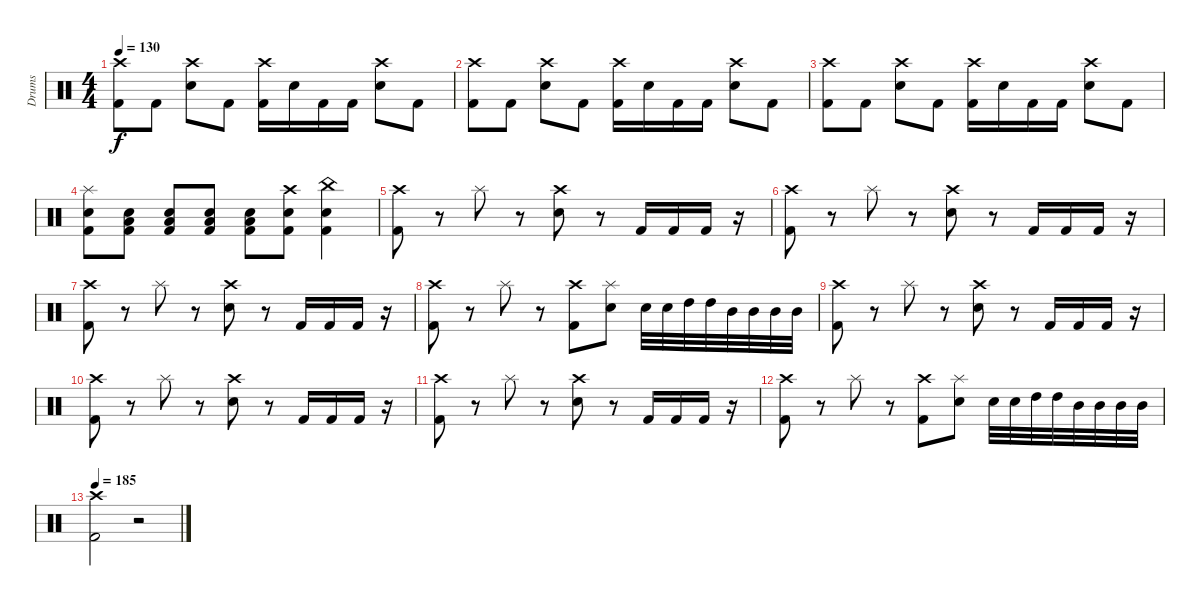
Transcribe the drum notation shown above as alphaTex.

\track ("Drums" "Drums") {instrument percussion}
\staff {score}
\articulation defaults
\ts (4 4)
\tempo 130
\clef neutral
\ks c
("Crash high (hit)" "Kick (hit) 2").8{dy f} "Kick (hit) 2".8 ("Crash high (hit)" "Snare (hit) 2").8 "Kick (hit) 2".8 ("Crash high (hit)" "Kick (hit) 2").16 "Snare (hit) 2".16 "Kick (hit) 2".16 "Kick (hit) 2".16 ("Crash high (hit)" "Snare (hit) 2").8 "Kick (hit) 2".8 |
("Crash high (hit)" "Kick (hit) 2").8 "Kick (hit) 2".8 ("Crash high (hit)" "Snare (hit) 2").8 "Kick (hit) 2".8 ("Crash high (hit)" "Kick (hit) 2").16 "Snare (hit) 2".16 "Kick (hit) 2".16 "Kick (hit) 2".16 ("Crash high (hit)" "Snare (hit) 2").8 "Kick (hit) 2".8 |
("Crash high (hit)" "Kick (hit) 2").8 "Kick (hit) 2".8 ("Crash high (hit)" "Snare (hit) 2").8 "Kick (hit) 2".8 ("Crash high (hit)" "Kick (hit) 2").16 "Snare (hit) 2".16 "Kick (hit) 2".16 "Kick (hit) 2".16 ("Crash high (hit)" "Snare (hit) 2").8 "Kick (hit) 2".8 |
("Splash (hit)" "Snare (hit) 2" "Kick (hit) 2").8 ("Low Tom (hit)" "Snare (hit) 2" "Kick (hit) 2").8 ("Low Tom (hit)" "Snare (hit) 2" "Kick (hit) 2").8 ("Low Tom (hit)" "Snare (hit) 2" "Kick (hit) 2").8 ("Low Tom (hit)" "Snare (hit) 2" "Kick (hit) 2").8 ("Crash high (hit)" "Snare (hit) 2" "Kick (hit) 2").8 ("China (hit)" "Snare (hit) 2" "Kick (hit) 2").4 |
("Crash high (hit)" "Kick (hit) 2").8 r.8 "Splash (hit)".8 r.8 ("Crash high (hit)" "Snare (hit) 2").8 r.8 "Kick (hit) 2".16 "Kick (hit) 2".16 "Kick (hit) 2".16 r.16 |
("Crash high (hit)" "Kick (hit) 2").8 r.8 "Splash (hit)".8 r.8 ("Crash high (hit)" "Snare (hit) 2").8 r.8 "Kick (hit) 2".16 "Kick (hit) 2".16 "Kick (hit) 2".16 r.16 |
("Crash high (hit)" "Kick (hit) 2").8 r.8 "Splash (hit)".8 r.8 ("Crash high (hit)" "Snare (hit) 2").8 r.8 "Kick (hit) 2".16 "Kick (hit) 2".16 "Kick (hit) 2".16 r.16 |
("Crash high (hit)" "Kick (hit) 2").8 r.8 "Splash (hit)".8 r.8 ("Crash high (hit)" "Kick (hit) 2").8 ("Splash (hit)" "Snare (hit) 2").8 "Snare (hit) 2".32 "Snare (hit) 2".32 "High Tom (hit)".32 "High Tom (hit)".32 "Mid Tom (hit)".32 "Mid Tom (hit)".32 "Mid Tom (hit)".32 "Mid Tom (hit)".32 |
("Crash high (hit)" "Kick (hit) 2").8 r.8 "Splash (hit)".8 r.8 ("Crash high (hit)" "Snare (hit) 2").8 r.8 "Kick (hit) 2".16 "Kick (hit) 2".16 "Kick (hit) 2".16 r.16 |
("Crash high (hit)" "Kick (hit) 2").8 r.8 "Splash (hit)".8 r.8 ("Crash high (hit)" "Snare (hit) 2").8 r.8 "Kick (hit) 2".16 "Kick (hit) 2".16 "Kick (hit) 2".16 r.16 |
("Crash high (hit)" "Kick (hit) 2").8 r.8 "Splash (hit)".8 r.8 ("Crash high (hit)" "Snare (hit) 2").8 r.8 "Kick (hit) 2".16 "Kick (hit) 2".16 "Kick (hit) 2".16 r.16 |
("Crash high (hit)" "Kick (hit) 2").8 r.8 "Splash (hit)".8 r.8 ("Crash high (hit)" "Kick (hit) 2").8 ("Splash (hit)" "Snare (hit) 2").8 "Snare (hit) 2".32 "Snare (hit) 2".32 "High Tom (hit)".32 "High Tom (hit)".32 "Mid Tom (hit)".32 "Mid Tom (hit)".32 "Mid Tom (hit)".32 "Mid Tom (hit)".32 |
\tempo 185
("Crash high (hit)" "Kick (hit) 2").2 r.2
